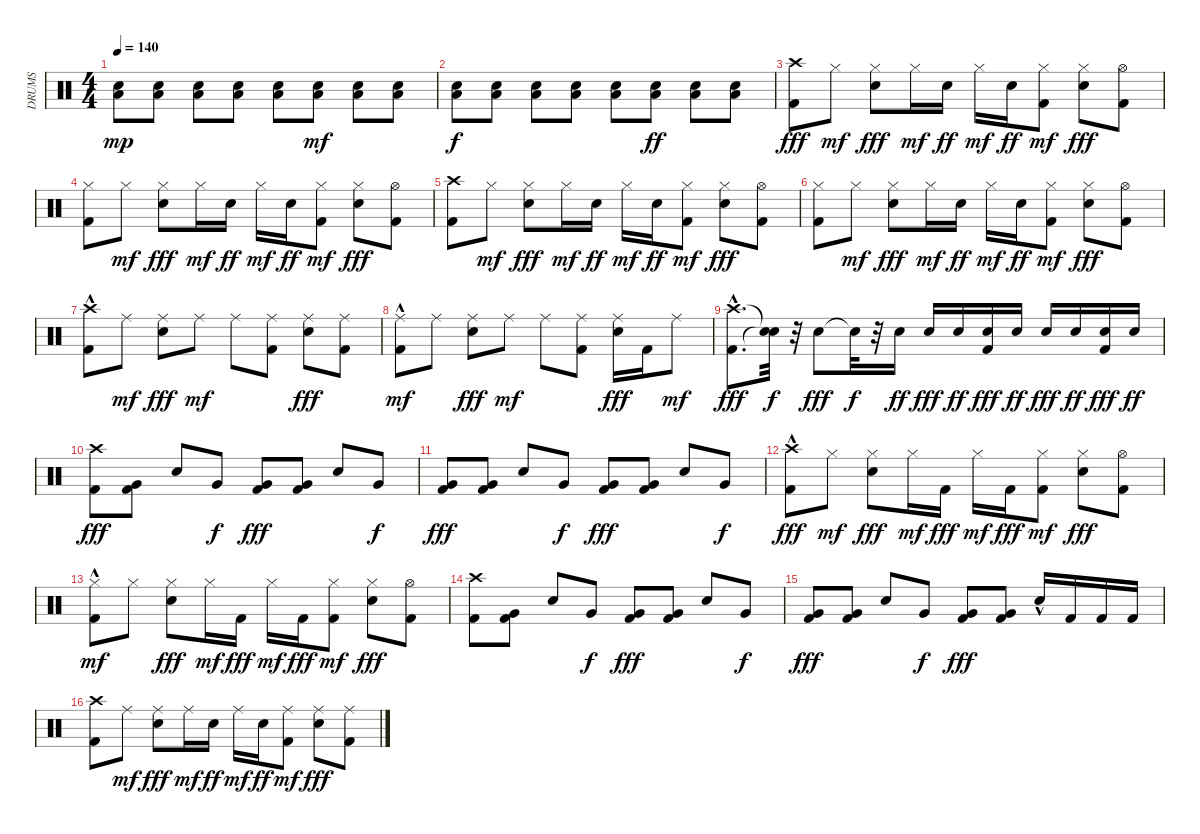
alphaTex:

\track ("DRUMS" "DRUMS") {instrument percussion}
\staff {score}
\articulation defaults
\ts (4 4)
\tempo 140
\clef neutral
\ks c
("Low Tom (hit)" "Electric Snare (hit)").8{dy mp} ("Low Tom (hit)" "Electric Snare (hit)").8 ("Low Tom (hit)" "Electric Snare (hit)").8 ("Low Tom (hit)" "Electric Snare (hit)").8 ("Low Tom (hit)" "Electric Snare (hit)").8 ("Low Tom (hit)" "Electric Snare (hit)").8{dy mf} ("Low Tom (hit)" "Electric Snare (hit)").8 ("Low Tom (hit)" "Electric Snare (hit)").8 |
("Low Tom (hit)" "Electric Snare (hit)").8{dy f} ("Low Tom (hit)" "Electric Snare (hit)").8 ("Low Tom (hit)" "Electric Snare (hit)").8 ("Low Tom (hit)" "Electric Snare (hit)").8 ("Low Tom (hit)" "Electric Snare (hit)").8 ("Low Tom (hit)" "Electric Snare (hit)").8{dy ff} ("Low Tom (hit)" "Electric Snare (hit)").8 ("Low Tom (hit)" "Electric Snare (hit)").8 |
("Kick (hit) 2" "Crash high (hit)").8{dy fff} "Hi-Hat (closed)".8{dy mf} ("Hi-Hat (closed)" "Electric Snare (hit)").8{dy fff} "Hi-Hat (closed)".16{dy mf} "Electric Snare (hit)".16{dy ff} "Hi-Hat (closed)".16{dy mf} "Electric Snare (hit)".16{dy ff} ("Kick (hit) 2" "Hi-Hat (closed)").8{dy mf} ("Hi-Hat (closed)" "Electric Snare (hit)").8{dy fff} ("Kick (hit) 2" "Hi-Hat (open)").8 |
("Kick (hit) 2" "Hi-Hat (closed)").8 "Hi-Hat (closed)".8{dy mf} ("Hi-Hat (closed)" "Electric Snare (hit)").8{dy fff} "Hi-Hat (closed)".16{dy mf} "Electric Snare (hit)".16{dy ff} "Hi-Hat (closed)".16{dy mf} "Electric Snare (hit)".16{dy ff} ("Kick (hit) 2" "Hi-Hat (closed)").8{dy mf} ("Hi-Hat (closed)" "Electric Snare (hit)").8{dy fff} ("Kick (hit) 2" "Hi-Hat (open)").8 |
("Kick (hit) 2" "Crash high (hit)").8 "Hi-Hat (closed)".8{dy mf} ("Hi-Hat (closed)" "Electric Snare (hit)").8{dy fff} "Hi-Hat (closed)".16{dy mf} "Electric Snare (hit)".16{dy ff} "Hi-Hat (closed)".16{dy mf} "Electric Snare (hit)".16{dy ff} ("Kick (hit) 2" "Hi-Hat (closed)").8{dy mf} ("Hi-Hat (closed)" "Electric Snare (hit)").8{dy fff} ("Kick (hit) 2" "Hi-Hat (open)").8 |
("Kick (hit) 2" "Hi-Hat (closed)").8 "Hi-Hat (closed)".8{dy mf} ("Hi-Hat (closed)" "Electric Snare (hit)").8{dy fff} "Hi-Hat (closed)".16{dy mf} "Electric Snare (hit)".16{dy ff} "Hi-Hat (closed)".16{dy mf} "Electric Snare (hit)".16{dy ff} ("Kick (hit) 2" "Hi-Hat (closed)").8{dy mf} ("Hi-Hat (closed)" "Electric Snare (hit)").8{dy fff} ("Kick (hit) 2" "Hi-Hat (open)").8 |
("Kick (hit) 2"{hac} "Crash high (hit)").8 "Ride (middle)".8{dy mf} ("Electric Snare (hit)" "Ride (middle)").8{dy fff} "Ride (middle)".8{dy mf} "Ride (middle)".8 ("Kick (hit) 2" "Ride (middle)").8 ("Electric Snare (hit)" "Ride (middle)").8{dy fff} ("Ride (middle)" "Kick (hit) 2").8 |
("Kick (hit) 2"{hac} "Ride (middle)").8{dy mf} "Ride (middle)".8 ("Electric Snare (hit)" "Ride (middle)").8{dy fff} "Ride (middle)".8{dy mf} "Ride (middle)".8 ("Kick (hit) 2" "Ride (middle)").8 ("Electric Snare (hit)" "Ride (middle)").16{dy fff} "Kick (hit) 2".16 "Ride (middle)".8{dy mf} |
("Kick (hit) 2"{hac} "Crash high (hit)"{hac}).8{d dy fff} ("Snare (hit)"{t} "Snare (hit)"{t}).32{dy f} r.32 "Electric Snare (hit)".8{dy fff} "Snare (hit)"{t}.32{dy f} r.32 "Electric Snare (hit)".16{dy ff} "Electric Snare (hit)".16{dy fff} "Electric Snare (hit)".16{dy ff} ("Kick (hit) 2" "Electric Snare (hit)").16{dy fff} "Electric Snare (hit)".16{dy ff} "Electric Snare (hit)".16{dy fff} "Electric Snare (hit)".16{dy ff} ("Kick (hit) 2" "Electric Snare (hit)").16{dy fff} "Electric Snare (hit)".16{dy ff} |
("Kick (hit) 2" "Crash high (hit)").8{dy fff} ("Kick (hit) 2" "Very Low Tom (hit)").8 "Electric Snare (hit)".8 "Very Low Tom (hit)".8{dy f} ("Kick (hit) 2" "Very Low Tom (hit)").8{dy fff} ("Kick (hit) 2" "Very Low Tom (hit)").8 "Electric Snare (hit)".8 "Very Low Tom (hit)".8{dy f} |
("Kick (hit) 2" "Very Low Tom (hit)").8{dy fff} ("Kick (hit) 2" "Very Low Tom (hit)").8 "Electric Snare (hit)".8 "Very Low Tom (hit)".8{dy f} ("Kick (hit) 2" "Very Low Tom (hit)").8{dy fff} ("Kick (hit) 2" "Very Low Tom (hit)").8 "Electric Snare (hit)".8 "Very Low Tom (hit)".8{dy f} |
("Kick (hit) 2"{hac} "Crash high (hit)").8{dy fff} "Hi-Hat (closed)".8{dy mf} ("Electric Snare (hit)" "Hi-Hat (closed)").8{dy fff} "Hi-Hat (closed)".16{dy mf} "Kick (hit) 2".16{dy fff} "Hi-Hat (closed)".16{dy mf} "Kick (hit) 2".16{dy fff} ("Kick (hit) 2" "Hi-Hat (closed)").8{dy mf} ("Electric Snare (hit)" "Hi-Hat (closed)").8{dy fff} ("Kick (hit) 2" "Hi-Hat (open)").8 |
("Kick (hit) 2"{hac} "Hi-Hat (closed)").8{dy mf} "Hi-Hat (closed)".8 ("Electric Snare (hit)" "Hi-Hat (closed)").8{dy fff} "Hi-Hat (closed)".16{dy mf} "Kick (hit) 2".16{dy fff} "Hi-Hat (closed)".16{dy mf} "Kick (hit) 2".16{dy fff} ("Kick (hit) 2" "Hi-Hat (closed)").8{dy mf} ("Electric Snare (hit)" "Hi-Hat (closed)").8{dy fff} ("Kick (hit) 2" "Hi-Hat (open)").8 |
("Kick (hit) 2" "Crash high (hit)").8 ("Kick (hit) 2" "Very Low Tom (hit)").8 "Electric Snare (hit)".8 "Very Low Tom (hit)".8{dy f} ("Kick (hit) 2" "Very Low Tom (hit)").8{dy fff} ("Kick (hit) 2" "Very Low Tom (hit)").8 "Electric Snare (hit)".8 "Very Low Tom (hit)".8{dy f} |
("Kick (hit) 2" "Very Low Tom (hit)").8{dy fff} ("Kick (hit) 2" "Very Low Tom (hit)").8 "Electric Snare (hit)".8 "Very Low Tom (hit)".8{dy f} ("Kick (hit) 2" "Very Low Tom (hit)").8{dy fff} ("Kick (hit) 2" "Very Low Tom (hit)").8 "Electric Snare (hit)"{hac}.16 "Kick (hit) 2".16 "Kick (hit) 2".16 "Kick (hit) 2".16 |
("Kick (hit) 2" "Crash high (hit)").8 "Ride (middle)".8{dy mf} ("Ride (middle)" "Electric Snare (hit)").8{dy fff} "Ride (middle)".16{dy mf} "Electric Snare (hit)".16{dy ff} "Ride (middle)".16{dy mf} "Electric Snare (hit)".16{dy ff} ("Kick (hit) 2" "Ride (middle)").8{dy mf} ("Ride (middle)" "Electric Snare (hit)").8{dy fff} ("Ride (middle)" "Kick (hit) 2").8
